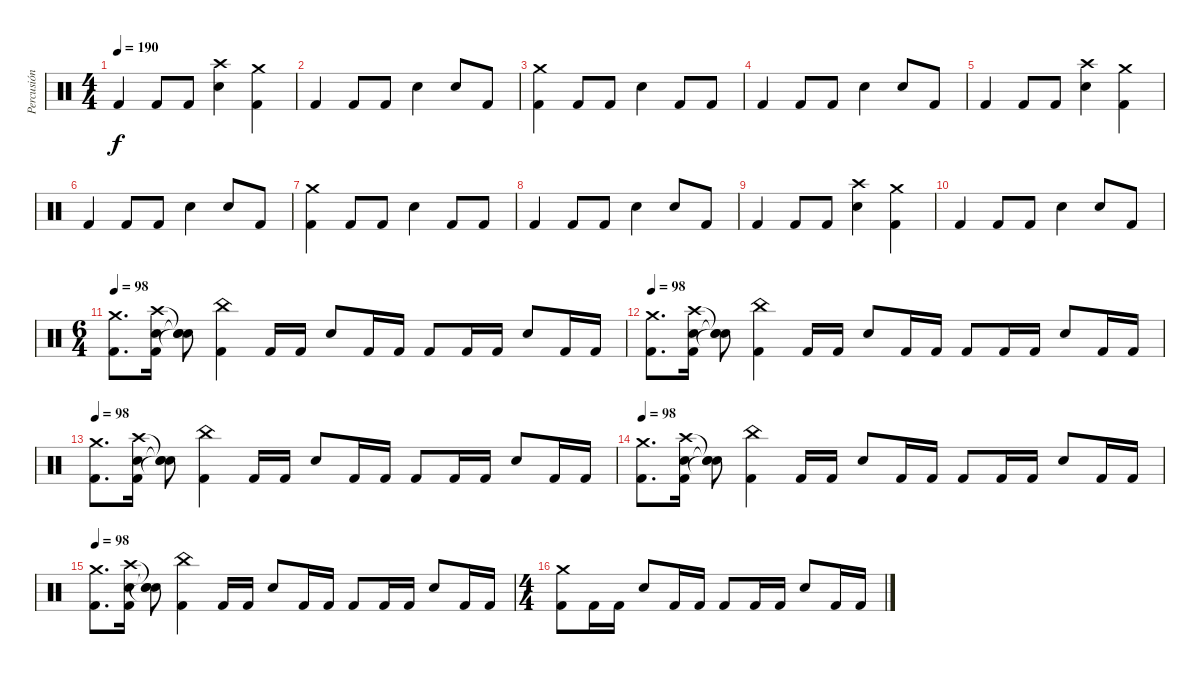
\track ("Percusión" "Percusión") {instrument percussion}
\staff {score}
\articulation defaults
\ts (4 4)
\tempo 190
\clef neutral
\ks c "Kick (hit) 2".4{dy f} "Kick (hit) 2".8 "Kick (hit) 2".8
("Crash high (hit)" "Electric Snare (hit)").4 ("Crash medium (hit)" "Kick (hit) 2").4 |
"Kick (hit) 2".4 "Kick (hit) 2".8 "Kick (hit) 2".8 "Electric Snare (hit)".4 "Electric Snare (hit)".8 "Kick (hit) 2".8 |
("Crash medium (hit)" "Kick (hit) 2").4 "Kick (hit) 2".8 "Kick (hit) 2".8 "Electric Snare (hit)".4 "Kick (hit) 2".8 "Kick (hit) 2".8 |
"Kick (hit) 2".4 "Kick (hit) 2".8 "Kick (hit) 2".8 "Electric Snare (hit)".4 "Electric Snare (hit)".8 "Kick (hit) 2".8 |
"Kick (hit) 2".4 "Kick (hit) 2".8 "Kick (hit) 2".8 ("Crash high (hit)" "Electric Snare (hit)").4 ("Crash medium (hit)" "Kick (hit) 2").4 |
"Kick (hit) 2".4 "Kick (hit) 2".8 "Kick (hit) 2".8 "Electric Snare (hit)".4 "Electric Snare (hit)".8 "Kick (hit) 2".8 |
("Crash medium (hit)" "Kick (hit) 2").4 "Kick (hit) 2".8 "Kick (hit) 2".8 "Electric Snare (hit)".4 "Kick (hit) 2".8 "Kick (hit) 2".8 |
"Kick (hit) 2".4 "Kick (hit) 2".8 "Kick (hit) 2".8 "Electric Snare (hit)".4 "Electric Snare (hit)".8 "Kick (hit) 2".8 |
"Kick (hit) 2".4 "Kick (hit) 2".8 "Kick (hit) 2".8 ("Crash high (hit)" "Electric Snare (hit)").4 ("Crash medium (hit)" "Kick (hit) 2").4 |
"Kick (hit) 2".4 "Kick (hit) 2".8 "Kick (hit) 2".8 "Electric Snare (hit)".4 "Electric Snare (hit)".8 "Kick (hit) 2".8 |
\ts (6 4)
\tempo 98
("Crash medium (hit)" "Kick (hit) 2").8{d} ("Crash high (hit)" "Electric Snare (hit)" "Kick (hit) 2").16 ("Snare (hit)"{t} "Snare (hit)"{t} "Snare (hit)"{t}).8 ("China (hit)" "Kick (hit) 2").4 "Kick (hit) 2".16 "Kick (hit) 2".16 "Electric Snare (hit)".8 "Kick (hit) 2".16 "Kick (hit) 2".16 "Kick (hit) 2".8 "Kick (hit) 2".16 "Kick (hit) 2".16 "Electric Snare (hit)".8 "Kick (hit) 2".16 "Kick (hit) 2".16 |
\tempo 98
("Crash medium (hit)" "Kick (hit) 2").8{d} ("Crash high (hit)" "Electric Snare (hit)" "Kick (hit) 2").16 ("Snare (hit)"{t} "Snare (hit)"{t} "Snare (hit)"{t}).8 ("China (hit)" "Kick (hit) 2").4 "Kick (hit) 2".16 "Kick (hit) 2".16 "Electric Snare (hit)".8 "Kick (hit) 2".16 "Kick (hit) 2".16 "Kick (hit) 2".8 "Kick (hit) 2".16 "Kick (hit) 2".16 "Electric Snare (hit)".8 "Kick (hit) 2".16 "Kick (hit) 2".16 |
\tempo 98
("Crash medium (hit)" "Kick (hit) 2").8{d} ("Crash high (hit)" "Electric Snare (hit)" "Kick (hit) 2").16 ("Snare (hit)"{t} "Snare (hit)"{t} "Snare (hit)"{t}).8 ("China (hit)" "Kick (hit) 2").4 "Kick (hit) 2".16 "Kick (hit) 2".16 "Electric Snare (hit)".8 "Kick (hit) 2".16 "Kick (hit) 2".16 "Kick (hit) 2".8 "Kick (hit) 2".16 "Kick (hit) 2".16 "Electric Snare (hit)".8 "Kick (hit) 2".16 "Kick (hit) 2".16 |
\tempo 98
("Crash medium (hit)" "Kick (hit) 2").8{d} ("Crash high (hit)" "Electric Snare (hit)" "Kick (hit) 2").16 ("Snare (hit)"{t} "Snare (hit)"{t} "Snare (hit)"{t}).8 ("China (hit)" "Kick (hit) 2").4 "Kick (hit) 2".16 "Kick (hit) 2".16 "Electric Snare (hit)".8 "Kick (hit) 2".16 "Kick (hit) 2".16 "Kick (hit) 2".8 "Kick (hit) 2".16 "Kick (hit) 2".16 "Electric Snare (hit)".8 "Kick (hit) 2".16 "Kick (hit) 2".16 |
\tempo 98
("Crash medium (hit)" "Kick (hit) 2").8{d} ("Crash high (hit)" "Electric Snare (hit)" "Kick (hit) 2").16 ("Snare (hit)"{t} "Snare (hit)"{t} "Snare (hit)"{t}).8 ("China (hit)" "Kick (hit) 2").4 "Kick (hit) 2".16 "Kick (hit) 2".16 "Electric Snare (hit)".8 "Kick (hit) 2".16 "Kick (hit) 2".16 "Kick (hit) 2".8 "Kick (hit) 2".16 "Kick (hit) 2".16 "Electric Snare (hit)".8 "Kick (hit) 2".16 "Kick (hit) 2".16 |
\ts (4 4)
("Crash medium (hit)" "Kick (hit) 2").8 "Kick (hit) 2".16 "Kick (hit) 2".16 "Electric Snare (hit)".8 "Kick (hit) 2".16 "Kick (hit) 2".16 "Kick (hit) 2".8 "Kick (hit) 2".16 "Kick (hit) 2".16 "Electric Snare (hit)".8 "Kick (hit) 2".16 "Kick (hit) 2".16
